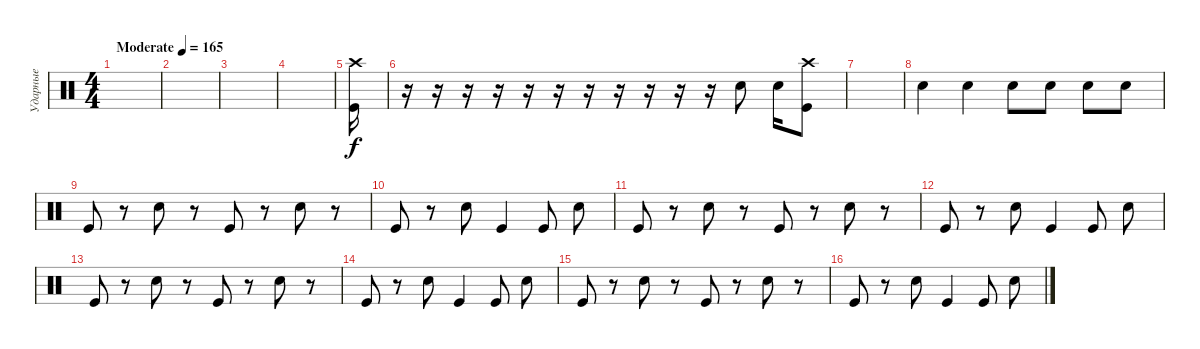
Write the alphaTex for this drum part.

\track ("Ударные" "Ударные") {instrument percussion}
\staff {score}
\articulation defaults
\ts (4 4)
\tempo (165 "Moderate")
\clef neutral
\ks c
|
|
|
|
("Crash high (hit)" "Kick (hit)").16 |
r.16 r.16 r.16 r.16 r.16 r.16 r.16 r.16 r.16 r.16 r.16 "Snare (hit) 2".8 "Snare (hit) 2".16 ("Kick (hit)" "Crash high (hit)").8 |
|
"Snare (hit) 2".4 "Snare (hit) 2".4 "Snare (hit) 2".8 "Snare (hit) 2".8 "Snare (hit) 2".8 "Snare (hit) 2".8 |
"Kick (hit)".8 r.8 "Snare (hit) 2".8 r.8 "Kick (hit)".8 r.8 "Snare (hit) 2".8 r.8 |
"Kick (hit)".8 r.8 "Snare (hit) 2".8 "Kick (hit)".4 "Kick (hit)".8 "Snare (hit) 2".8 |
"Kick (hit)".8 r.8 "Snare (hit) 2".8 r.8 "Kick (hit)".8 r.8 "Snare (hit) 2".8 r.8 |
"Kick (hit)".8 r.8 "Snare (hit) 2".8 "Kick (hit)".4 "Kick (hit)".8 "Snare (hit) 2".8 |
"Kick (hit)".8 r.8 "Snare (hit) 2".8 r.8 "Kick (hit)".8 r.8 "Snare (hit) 2".8 r.8 |
"Kick (hit)".8 r.8 "Snare (hit) 2".8 "Kick (hit)".4 "Kick (hit)".8 "Snare (hit) 2".8 |
"Kick (hit)".8 r.8 "Snare (hit) 2".8 r.8 "Kick (hit)".8 r.8 "Snare (hit) 2".8 r.8 |
"Kick (hit)".8 r.8 "Snare (hit) 2".8 "Kick (hit)".4 "Kick (hit)".8 "Snare (hit) 2".8
